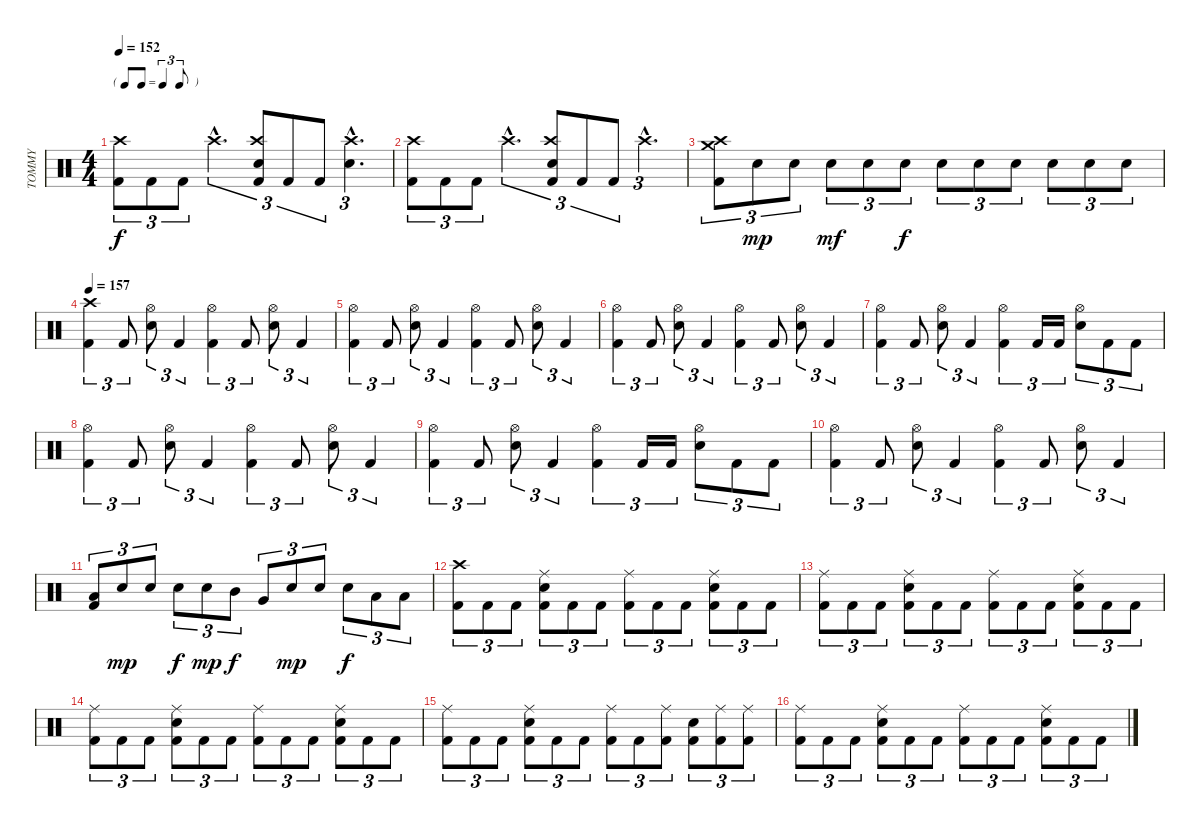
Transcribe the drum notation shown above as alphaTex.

\track ("TOMMY" "TOMMY") {instrument percussion}
\staff {score}
\articulation defaults
\ts (4 4)
\tf triplet8th
\tempo 152
\clef neutral
\ks c
("Kick (hit) 2" "Crash high (hit)").8{tu (3 2) dy f} "Kick (hit) 2".8{tu (3 2)} "Kick (hit) 2".8{tu (3 2)} "Crash high (hit)"{hac}.4{d tu (3 2)} ("Snare (hit) 2" "Kick (hit) 2" "Crash high (hit)").8{tu (3 2)} "Kick (hit) 2".8{tu (3 2)} "Kick (hit) 2".8{tu (3 2)} ("Snare (hit) 2"{hac} "Crash high (hit)"{hac}).4{d tu (3 2)} |
("Kick (hit) 2" "Crash high (hit)").8{tu (3 2)} "Kick (hit) 2".8{tu (3 2)} "Kick (hit) 2".8{tu (3 2)} "Crash high (hit)"{hac}.4{d tu (3 2)} ("Snare (hit) 2" "Kick (hit) 2" "Crash high (hit)").8{tu (3 2)} "Kick (hit) 2".8{tu (3 2)} "Kick (hit) 2".8{tu (3 2)} "Crash high (hit)"{hac}.4{d tu (3 2)} |
("Kick (hit) 2" "Crash high (hit)" "Crash medium (hit)").8{tu (3 2)} "Snare (hit) 2".8{tu (3 2) dy mp} "Snare (hit) 2".8{tu (3 2)} "Snare (hit) 2".8{tu (3 2) dy mf} "Snare (hit) 2".8{tu (3 2)} "Snare (hit) 2".8{tu (3 2) dy f} "Snare (hit) 2".8{tu (3 2)} "Snare (hit) 2".8{tu (3 2)} "Snare (hit) 2".8{tu (3 2)} "Snare (hit) 2".8{tu (3 2)} "Snare (hit) 2".8{tu (3 2)} "Snare (hit) 2".8{tu (3 2)} |
\tempo 157
("Kick (hit) 2" "Crash high (hit)").4{tu (3 2)} "Kick (hit) 2".8{tu (3 2)} ("Snare (hit) 2" "Hi-Hat (open)").8{tu (3 2)} "Kick (hit) 2".4{tu (3 2)} ("Kick (hit) 2" "Hi-Hat (open)").4{tu (3 2)} "Kick (hit) 2".8{tu (3 2)} ("Snare (hit) 2" "Hi-Hat (open)").8{tu (3 2)} "Kick (hit) 2".4{tu (3 2)} |
("Kick (hit) 2" "Hi-Hat (open)").4{tu (3 2)} "Kick (hit) 2".8{tu (3 2)} ("Snare (hit) 2" "Hi-Hat (open)").8{tu (3 2)} "Kick (hit) 2".4{tu (3 2)} ("Kick (hit) 2" "Hi-Hat (open)").4{tu (3 2)} "Kick (hit) 2".8{tu (3 2)} ("Snare (hit) 2" "Hi-Hat (open)").8{tu (3 2)} "Kick (hit) 2".4{tu (3 2)} |
("Kick (hit) 2" "Hi-Hat (open)").4{tu (3 2)} "Kick (hit) 2".8{tu (3 2)} ("Snare (hit) 2" "Hi-Hat (open)").8{tu (3 2)} "Kick (hit) 2".4{tu (3 2)} ("Kick (hit) 2" "Hi-Hat (open)").4{tu (3 2)} "Kick (hit) 2".8{tu (3 2)} ("Snare (hit) 2" "Hi-Hat (open)").8{tu (3 2)} "Kick (hit) 2".4{tu (3 2)} |
("Kick (hit) 2" "Hi-Hat (open)").4{tu (3 2)} "Kick (hit) 2".8{tu (3 2)} ("Snare (hit) 2" "Hi-Hat (open)").8{tu (3 2)} "Kick (hit) 2".4{tu (3 2)} ("Kick (hit) 2" "Hi-Hat (open)").4{tu (3 2)} "Kick (hit) 2".16{tu (3 2)} "Kick (hit) 2".16{tu (3 2)} ("Snare (hit) 2" "Hi-Hat (open)").8{tu (3 2)} "Kick (hit) 2".8{tu (3 2)} "Kick (hit) 2".8{tu (3 2)} |
("Kick (hit) 2" "Hi-Hat (open)").4{tu (3 2)} "Kick (hit) 2".8{tu (3 2)} ("Snare (hit) 2" "Hi-Hat (open)").8{tu (3 2)} "Kick (hit) 2".4{tu (3 2)} ("Kick (hit) 2" "Hi-Hat (open)").4{tu (3 2)} "Kick (hit) 2".8{tu (3 2)} ("Snare (hit) 2" "Hi-Hat (open)").8{tu (3 2)} "Kick (hit) 2".4{tu (3 2)} |
("Kick (hit) 2" "Hi-Hat (open)").4{tu (3 2)} "Kick (hit) 2".8{tu (3 2)} ("Snare (hit) 2" "Hi-Hat (open)").8{tu (3 2)} "Kick (hit) 2".4{tu (3 2)} ("Kick (hit) 2" "Hi-Hat (open)").4{tu (3 2)} "Kick (hit) 2".16{tu (3 2)} "Kick (hit) 2".16{tu (3 2)} ("Snare (hit) 2" "Hi-Hat (open)").8{tu (3 2)} "Kick (hit) 2".8{tu (3 2)} "Kick (hit) 2".8{tu (3 2)} |
("Kick (hit) 2" "Hi-Hat (open)").4{tu (3 2)} "Kick (hit) 2".8{tu (3 2)} ("Snare (hit) 2" "Hi-Hat (open)").8{tu (3 2)} "Kick (hit) 2".4{tu (3 2)} ("Kick (hit) 2" "Hi-Hat (open)").4{tu (3 2)} "Kick (hit) 2".8{tu (3 2)} ("Snare (hit) 2" "Hi-Hat (open)").8{tu (3 2)} "Kick (hit) 2".4{tu (3 2)} |
("Kick (hit) 2" "Low Floor Tom (hit)").8{tu (3 2)} "Snare (hit) 2".8{tu (3 2) dy mp} "Snare (hit) 2".8{tu (3 2)} "Snare (hit) 2".8{tu (3 2) dy f} "Snare (hit) 2".8{tu (3 2) dy mp} "Mid Tom (hit)".8{tu (3 2) dy f} "Very Low Tom (hit)".8{tu (3 2)} "Snare (hit) 2".8{tu (3 2) dy mp} "Snare (hit) 2".8{tu (3 2)} "Snare (hit) 2".8{tu (3 2) dy f} "Low Floor Tom (hit)".8{tu (3 2)} "Low Floor Tom (hit)".8{tu (3 2)} |
("Kick (hit) 2" "Crash high (hit)").8{tu (3 2)} "Kick (hit) 2".8{tu (3 2)} "Kick (hit) 2".8{tu (3 2)} ("Snare (hit) 2" "Kick (hit) 2" "Ride (middle)").8{tu (3 2)} "Kick (hit) 2".8{tu (3 2)} "Kick (hit) 2".8{tu (3 2)} ("Kick (hit) 2" "Ride (middle)").8{tu (3 2)} "Kick (hit) 2".8{tu (3 2)} "Kick (hit) 2".8{tu (3 2)} ("Snare (hit) 2" "Kick (hit) 2" "Ride (middle)").8{tu (3 2)} "Kick (hit) 2".8{tu (3 2)} "Kick (hit) 2".8{tu (3 2)} |
("Kick (hit) 2" "Ride (middle)").8{tu (3 2)} "Kick (hit) 2".8{tu (3 2)} "Kick (hit) 2".8{tu (3 2)} ("Snare (hit) 2" "Kick (hit) 2" "Ride (middle)").8{tu (3 2)} "Kick (hit) 2".8{tu (3 2)} "Kick (hit) 2".8{tu (3 2)} ("Kick (hit) 2" "Ride (middle)").8{tu (3 2)} "Kick (hit) 2".8{tu (3 2)} "Kick (hit) 2".8{tu (3 2)} ("Snare (hit) 2" "Kick (hit) 2" "Ride (middle)").8{tu (3 2)} "Kick (hit) 2".8{tu (3 2)} "Kick (hit) 2".8{tu (3 2)} |
("Kick (hit) 2" "Ride (middle)").8{tu (3 2)} "Kick (hit) 2".8{tu (3 2)} "Kick (hit) 2".8{tu (3 2)} ("Snare (hit) 2" "Kick (hit) 2" "Ride (middle)").8{tu (3 2)} "Kick (hit) 2".8{tu (3 2)} "Kick (hit) 2".8{tu (3 2)} ("Kick (hit) 2" "Ride (middle)").8{tu (3 2)} "Kick (hit) 2".8{tu (3 2)} "Kick (hit) 2".8{tu (3 2)} ("Snare (hit) 2" "Kick (hit) 2" "Ride (middle)").8{tu (3 2)} "Kick (hit) 2".8{tu (3 2)} "Kick (hit) 2".8{tu (3 2)} |
("Kick (hit) 2" "Ride (middle)").8{tu (3 2)} "Kick (hit) 2".8{tu (3 2)} "Kick (hit) 2".8{tu (3 2)} ("Snare (hit) 2" "Kick (hit) 2" "Ride (middle)").8{tu (3 2)} "Kick (hit) 2".8{tu (3 2)} "Kick (hit) 2".8{tu (3 2)} ("Kick (hit) 2" "Ride (middle)").8{tu (3 2)} "Kick (hit) 2".8{tu (3 2)} ("Kick (hit) 2" "Ride (middle)").8{tu (3 2)} ("Snare (hit) 2" "Kick (hit) 2").8{tu (3 2)} ("Kick (hit) 2" "Ride (middle)").8{tu (3 2)} ("Kick (hit) 2" "Ride (middle)").8{tu (3 2)} |
("Kick (hit) 2" "Ride (middle)").8{tu (3 2)} "Kick (hit) 2".8{tu (3 2)} "Kick (hit) 2".8{tu (3 2)} ("Snare (hit) 2" "Kick (hit) 2" "Ride (middle)").8{tu (3 2)} "Kick (hit) 2".8{tu (3 2)} "Kick (hit) 2".8{tu (3 2)} ("Kick (hit) 2" "Ride (middle)").8{tu (3 2)} "Kick (hit) 2".8{tu (3 2)} "Kick (hit) 2".8{tu (3 2)} ("Snare (hit) 2" "Kick (hit) 2" "Ride (middle)").8{tu (3 2)} "Kick (hit) 2".8{tu (3 2)} "Kick (hit) 2".8{tu (3 2)}
